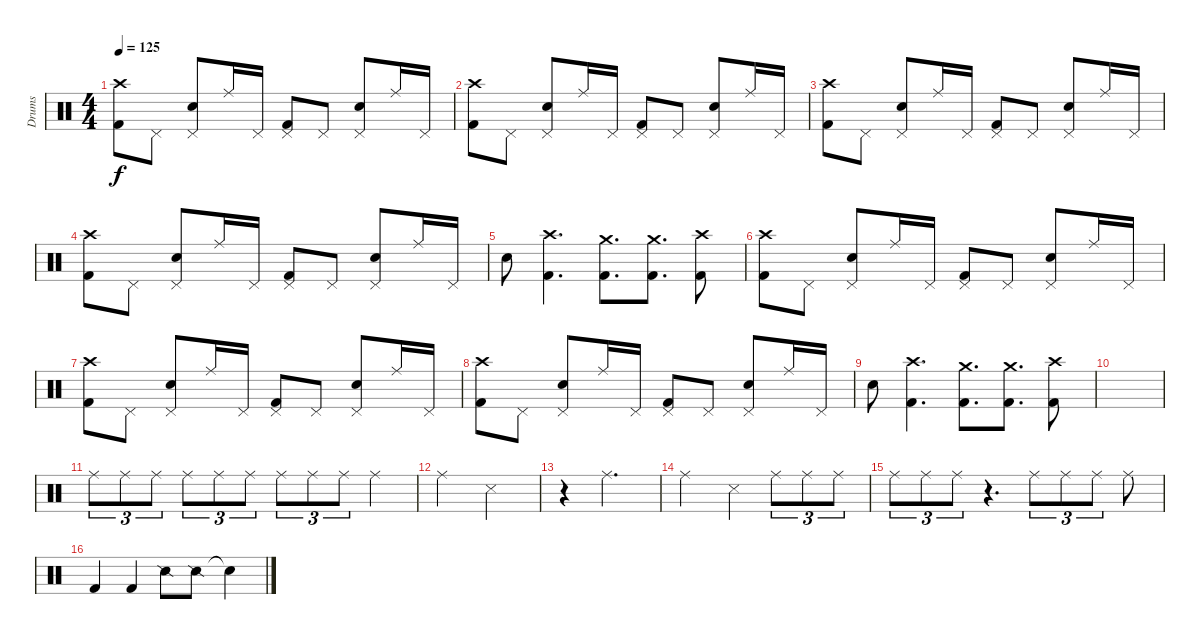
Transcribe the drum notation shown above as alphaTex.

\track ("Drums" "Drums") {instrument percussion}
\staff {score}
\articulation defaults
\ts (4 4)
\tempo 125
\clef neutral
\ks c
("Crash high (hit)" "Kick (hit) 2").8{dy f} "Pedal Hi-Hat (hit)".8 ("Pedal Hi-Hat (hit)" "Snare (hit) 2").8 "Ride (middle)".16 "Pedal Hi-Hat (hit)".16 ("Pedal Hi-Hat (hit)" "Kick (hit) 2").8 "Pedal Hi-Hat (hit)".8 ("Pedal Hi-Hat (hit)" "Snare (hit) 2").8 "Ride (middle)".16 "Pedal Hi-Hat (hit)".16 |
("Crash high (hit)" "Kick (hit) 2").8 "Pedal Hi-Hat (hit)".8 ("Pedal Hi-Hat (hit)" "Snare (hit) 2").8 "Ride (middle)".16 "Pedal Hi-Hat (hit)".16 ("Pedal Hi-Hat (hit)" "Kick (hit) 2").8 "Pedal Hi-Hat (hit)".8 ("Pedal Hi-Hat (hit)" "Snare (hit) 2").8 "Ride (middle)".16 "Pedal Hi-Hat (hit)".16 |
("Crash high (hit)" "Kick (hit) 2").8 "Pedal Hi-Hat (hit)".8 ("Pedal Hi-Hat (hit)" "Snare (hit) 2").8 "Ride (middle)".16 "Pedal Hi-Hat (hit)".16 ("Pedal Hi-Hat (hit)" "Kick (hit) 2").8 "Pedal Hi-Hat (hit)".8 ("Pedal Hi-Hat (hit)" "Snare (hit) 2").8 "Ride (middle)".16 "Pedal Hi-Hat (hit)".16 |
("Crash high (hit)" "Kick (hit) 2").8 "Pedal Hi-Hat (hit)".8 ("Pedal Hi-Hat (hit)" "Snare (hit) 2").8 "Ride (middle)".16 "Pedal Hi-Hat (hit)".16 ("Pedal Hi-Hat (hit)" "Kick (hit) 2").8 "Pedal Hi-Hat (hit)".8 ("Pedal Hi-Hat (hit)" "Snare (hit) 2").8 "Ride (middle)".16 "Pedal Hi-Hat (hit)".16 |
"Snare (hit) 2".8 ("Crash high (hit)" "Kick (hit) 2").4{d} ("Crash medium (hit)" "Kick (hit) 2").8{d} ("Crash medium (hit)" "Kick (hit) 2").8{d} ("Crash high (hit)" "Kick (hit) 2").8 |
("Crash high (hit)" "Kick (hit) 2").8 "Pedal Hi-Hat (hit)".8 ("Pedal Hi-Hat (hit)" "Snare (hit) 2").8 "Ride (middle)".16 "Pedal Hi-Hat (hit)".16 ("Pedal Hi-Hat (hit)" "Kick (hit) 2").8 "Pedal Hi-Hat (hit)".8 ("Pedal Hi-Hat (hit)" "Snare (hit) 2").8 "Ride (middle)".16 "Pedal Hi-Hat (hit)".16 |
("Crash high (hit)" "Kick (hit) 2").8 "Pedal Hi-Hat (hit)".8 ("Pedal Hi-Hat (hit)" "Snare (hit) 2").8 "Ride (middle)".16 "Pedal Hi-Hat (hit)".16 ("Pedal Hi-Hat (hit)" "Kick (hit) 2").8 "Pedal Hi-Hat (hit)".8 ("Pedal Hi-Hat (hit)" "Snare (hit) 2").8 "Ride (middle)".16 "Pedal Hi-Hat (hit)".16 |
("Crash high (hit)" "Kick (hit) 2").8 "Pedal Hi-Hat (hit)".8 ("Pedal Hi-Hat (hit)" "Snare (hit) 2").8 "Ride (middle)".16 "Pedal Hi-Hat (hit)".16 ("Pedal Hi-Hat (hit)" "Kick (hit) 2").8 "Pedal Hi-Hat (hit)".8 ("Pedal Hi-Hat (hit)" "Snare (hit) 2").8 "Ride (middle)".16 "Pedal Hi-Hat (hit)".16 |
"Snare (hit) 2".8 ("Crash high (hit)" "Kick (hit) 2").4{d} ("Kick (hit) 2" "Crash medium (hit)").8{d} ("Kick (hit) 2" "Crash medium (hit)").8{d} ("Crash high (hit)" "Kick (hit) 2").8 |
|
"Ride (middle)".8{tu (3 2) volume 6} "Ride (middle)".8{tu (3 2)} "Ride (middle)".8{tu (3 2)} "Ride (middle)".8{tu (3 2)} "Ride (middle)".8{tu (3 2)} "Ride (middle)".8{tu (3 2)} "Ride (middle)".8{tu (3 2)} "Ride (middle)".8{tu (3 2)} "Ride (middle)".8{tu (3 2)} "Ride (middle)".4 |
"Ride (middle)".2 "Snare (side stick) 3".2 |
r.4 "Ride (middle)".2{d} |
"Ride (middle)".2 "Snare (side stick) 3".4 "Ride (middle)".8{tu (3 2)} "Ride (middle)".8{tu (3 2)} "Ride (middle)".8{tu (3 2)} |
"Ride (middle)".8{tu (3 2)} "Ride (middle)".8{tu (3 2)} "Ride (middle)".8{tu (3 2)} r.4{d} "Ride (middle)".8{tu (3 2)} "Ride (middle)".8{tu (3 2)} "Ride (middle)".8{tu (3 2)} "Ride (middle)".8 |
"Kick (hit) 2".4 "Kick (hit) 2".4 "Snare (side stick) 2".8 "Snare (side stick) 2".8 "Snare (hit)"{t}.4
